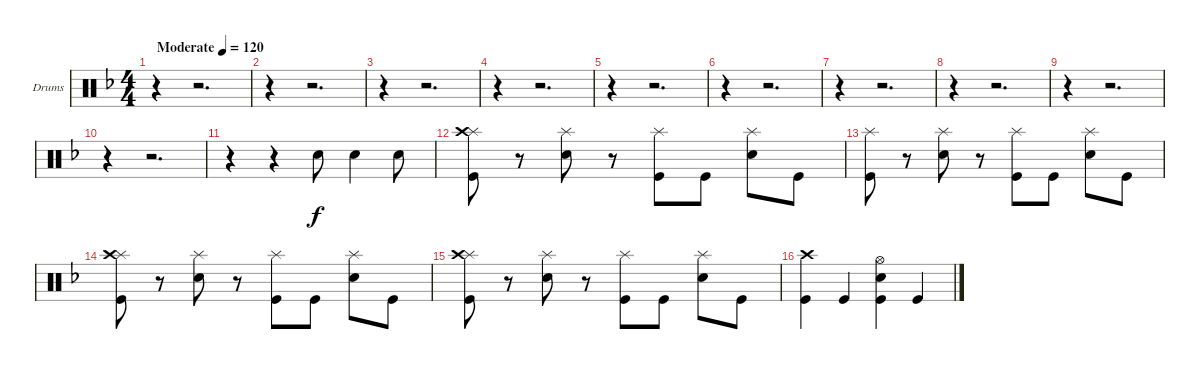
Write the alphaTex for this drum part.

\bracketExtendMode groupsimilarinstruments
\firstSystemTrackNameOrientation horizontal
\otherSystemsTrackNameOrientation horizontal
\track ("Drumkit" "Drums") {instrument percussion}
\staff {score}
\articulation defaults
\ts (4 4)
\beaming (8 2 2 2 2)
\tempo (120 "Moderate")
\clef neutral
\ks f
r.4{dy f} r.2{d} |
r.4 r.2{d} |
r.4 r.2{d} |
r.4 r.2{d} |
r.4 r.2{d} |
r.4 r.2{d} |
r.4 r.2{d} |
r.4 r.2{d} |
r.4 r.2{d} |
r.4 r.2{d} |
r.4 r.4 "Snare (hit) 2".8 "Snare (hit) 2".4 "Snare (hit) 2".8 |
("Splash (hit)" "Crash high (hit)" "Kick (hit)").8 r.8 ("Splash (hit)" "Snare (hit) 2").8 r.8 ("Splash (hit)" "Kick (hit)").8 "Kick (hit)".8 ("Splash (hit)" "Snare (hit) 2").8 "Kick (hit)".8 |
("Splash (hit)" "Kick (hit)").8 r.8 ("Splash (hit)" "Snare (hit) 2").8 r.8 ("Splash (hit)" "Kick (hit)").8 "Kick (hit)".8 ("Splash (hit)" "Snare (hit) 2").8 "Kick (hit)".8 |
("Splash (hit)" "Crash high (hit)" "Kick (hit)").8 r.8 ("Splash (hit)" "Snare (hit) 2").8 r.8 ("Splash (hit)" "Kick (hit)").8 "Kick (hit)".8 ("Splash (hit)" "Snare (hit) 2").8 "Kick (hit)".8 |
("Splash (hit)" "Crash high (hit)" "Kick (hit)").8 r.8 ("Splash (hit)" "Snare (hit) 2").8 r.8 ("Splash (hit)" "Kick (hit)").8 "Kick (hit)".8 ("Splash (hit)" "Snare (hit) 2").8 "Kick (hit)".8 |
("Crash high (hit)" "Kick (hit)").4 "Kick (hit)".4 ("Hi-Hat (open)" "Snare (hit) 2" "Kick (hit)").4 "Kick (hit)".4
